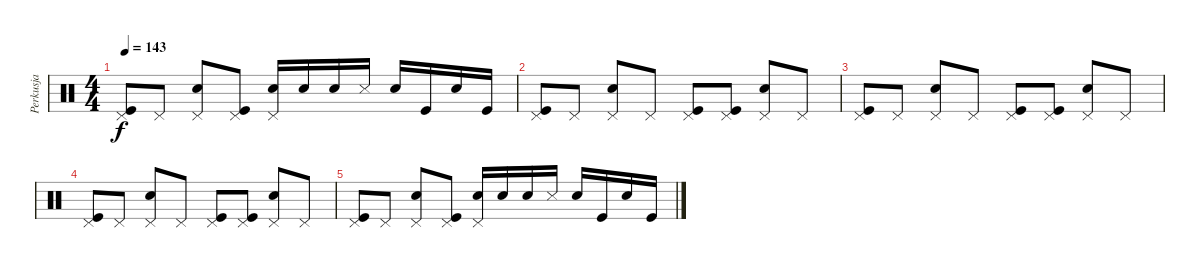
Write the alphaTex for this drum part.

\track ("Perkusja" "Perkusja") {instrument percussion}
\staff {score}
\articulation defaults
\ts (4 4)
\tempo 143
\clef neutral
\ks c
("Pedal Hi-Hat (hit)" "Kick (hit)").8{dy f} "Pedal Hi-Hat (hit)".8 ("Pedal Hi-Hat (hit)" "Snare (hit) 2").8 ("Pedal Hi-Hat (hit)" "Kick (hit)").8 ("Pedal Hi-Hat (hit)" "Snare (hit) 2").16 "Snare (hit) 2".16 "Snare (hit) 2".16 "Snare (side stick) 3".16 "Snare (hit) 2".16 "Kick (hit)".16 "Snare (hit) 2".16 "Kick (hit)".16 |
("Pedal Hi-Hat (hit)" "Kick (hit)").8 "Pedal Hi-Hat (hit)".8 ("Pedal Hi-Hat (hit)" "Snare (hit) 2").8 "Pedal Hi-Hat (hit)".8 ("Pedal Hi-Hat (hit)" "Kick (hit)").8 ("Pedal Hi-Hat (hit)" "Kick (hit)").8 ("Pedal Hi-Hat (hit)" "Snare (hit) 2").8 "Pedal Hi-Hat (hit)".8 |
("Pedal Hi-Hat (hit)" "Kick (hit)").8 "Pedal Hi-Hat (hit)".8 ("Pedal Hi-Hat (hit)" "Snare (hit) 2").8 "Pedal Hi-Hat (hit)".8 ("Pedal Hi-Hat (hit)" "Kick (hit)").8 ("Pedal Hi-Hat (hit)" "Kick (hit)").8 ("Pedal Hi-Hat (hit)" "Snare (hit) 2").8 "Pedal Hi-Hat (hit)".8 |
("Pedal Hi-Hat (hit)" "Kick (hit)").8 "Pedal Hi-Hat (hit)".8 ("Pedal Hi-Hat (hit)" "Snare (hit) 2").8 "Pedal Hi-Hat (hit)".8 ("Pedal Hi-Hat (hit)" "Kick (hit)").8 ("Pedal Hi-Hat (hit)" "Kick (hit)").8 ("Pedal Hi-Hat (hit)" "Snare (hit) 2").8 "Pedal Hi-Hat (hit)".8 |
("Pedal Hi-Hat (hit)" "Kick (hit)").8 "Pedal Hi-Hat (hit)".8 ("Pedal Hi-Hat (hit)" "Snare (hit) 2").8 ("Pedal Hi-Hat (hit)" "Kick (hit)").8 ("Pedal Hi-Hat (hit)" "Snare (hit) 2").16 "Snare (hit) 2".16 "Snare (hit) 2".16 "Snare (side stick) 3".16 "Snare (hit) 2".16 "Kick (hit)".16 "Snare (hit) 2".16 "Kick (hit)".16
